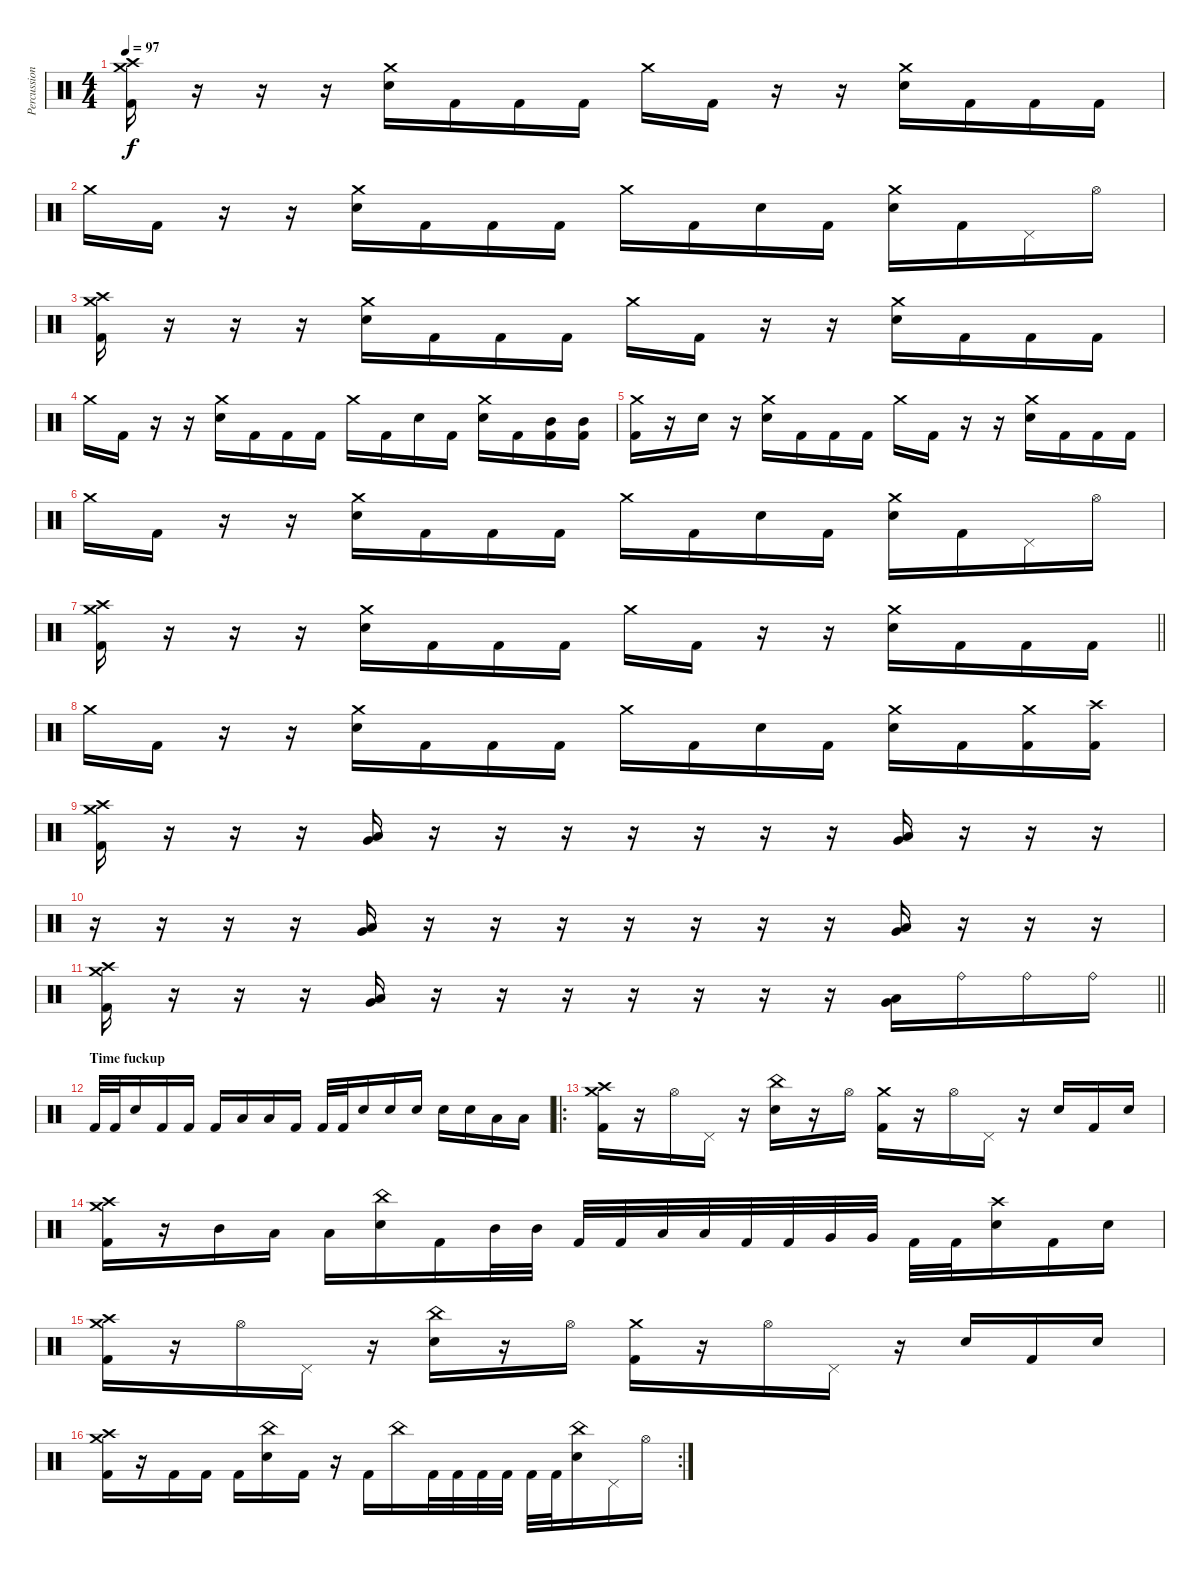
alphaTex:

\track ("Percussion" "Percussion") {instrument percussion}
\staff {score}
\articulation defaults
\ts (4 4)
\tempo 97
\clef neutral
\ks c
("Crash medium (hit)" "Crash high (hit)" "Kick (hit) 2").16{dy f} r.16 r.16 r.16 ("Crash medium (hit)" "Snare (hit) 2").16 "Kick (hit) 2".16 "Kick (hit) 2".16 "Kick (hit) 2".16 "Crash medium (hit)".16 "Kick (hit) 2".16 r.16 r.16 ("Crash medium (hit)" "Snare (hit) 2").16 "Kick (hit) 2".16 "Kick (hit) 2".16 "Kick (hit) 2".16 |
"Crash medium (hit)".16 "Kick (hit) 2".16 r.16 r.16 ("Crash medium (hit)" "Snare (hit) 2").16 "Kick (hit) 2".16 "Kick (hit) 2".16 "Kick (hit) 2".16 "Crash medium (hit)".16 "Kick (hit) 2".16 "Snare (hit) 2".16 "Kick (hit) 2".16 ("Crash medium (hit)" "Snare (hit) 2").16 "Kick (hit) 2".16 "Pedal Hi-Hat (hit)".16 "Hi-Hat (open)".16 |
("Crash medium (hit)" "Crash high (hit)" "Kick (hit) 2").16 r.16 r.16 r.16 ("Crash medium (hit)" "Snare (hit) 2").16 "Kick (hit) 2".16 "Kick (hit) 2".16 "Kick (hit) 2".16 "Crash medium (hit)".16 "Kick (hit) 2".16 r.16 r.16 ("Crash medium (hit)" "Snare (hit) 2").16 "Kick (hit) 2".16 "Kick (hit) 2".16 "Kick (hit) 2".16 |
"Crash medium (hit)".16 "Kick (hit) 2".16 r.16 r.16 ("Crash medium (hit)" "Snare (hit) 2").16 "Kick (hit) 2".16 "Kick (hit) 2".16 "Kick (hit) 2".16 "Crash medium (hit)".16 "Kick (hit) 2".16 "Snare (hit) 2".16 "Kick (hit) 2".16 ("Crash medium (hit)" "Snare (hit) 2").16 "Kick (hit) 2".16 ("Mid Tom (hit)" "Kick (hit) 2").16 ("Mid Tom (hit)" "Kick (hit) 2").16 |
("Crash medium (hit)" "Kick (hit) 2").16 r.16 "Snare (hit) 2".16 r.16 ("Crash medium (hit)" "Snare (hit) 2").16 "Kick (hit) 2".16 "Kick (hit) 2".16 "Kick (hit) 2".16 "Crash medium (hit)".16 "Kick (hit) 2".16 r.16 r.16 ("Crash medium (hit)" "Snare (hit) 2").16 "Kick (hit) 2".16 "Kick (hit) 2".16 "Kick (hit) 2".16 |
"Crash medium (hit)".16 "Kick (hit) 2".16 r.16 r.16 ("Crash medium (hit)" "Snare (hit) 2").16 "Kick (hit) 2".16 "Kick (hit) 2".16 "Kick (hit) 2".16 "Crash medium (hit)".16 "Kick (hit) 2".16 "Snare (hit) 2".16 "Kick (hit) 2".16 ("Crash medium (hit)" "Snare (hit) 2").16 "Kick (hit) 2".16 "Pedal Hi-Hat (hit)".16 "Hi-Hat (open)".16 |
\barLineRight lightlight
("Crash medium (hit)" "Crash high (hit)" "Kick (hit) 2").16 r.16 r.16 r.16 ("Crash medium (hit)" "Snare (hit) 2").16 "Kick (hit) 2".16 "Kick (hit) 2".16 "Kick (hit) 2".16 "Crash medium (hit)".16 "Kick (hit) 2".16 r.16 r.16 ("Crash medium (hit)" "Snare (hit) 2").16 "Kick (hit) 2".16 "Kick (hit) 2".16 "Kick (hit) 2".16 |
"Crash medium (hit)".16 "Kick (hit) 2".16 r.16 r.16 ("Crash medium (hit)" "Snare (hit) 2").16 "Kick (hit) 2".16 "Kick (hit) 2".16 "Kick (hit) 2".16 "Crash medium (hit)".16 "Kick (hit) 2".16 "Snare (hit) 2".16 "Kick (hit) 2".16 ("Crash medium (hit)" "Snare (hit) 2").16 "Kick (hit) 2".16 ("Crash medium (hit)" "Kick (hit) 2").16 ("Crash high (hit)" "Kick (hit) 2").16 |
("Crash high (hit)" "Crash medium (hit)" "Kick (hit) 2").16 r.16 r.16 r.16 ("Low Tom (hit)" "Very Low Tom (hit)").16 r.16 r.16 r.16 r.16 r.16 r.16 r.16 ("Low Tom (hit)" "Very Low Tom (hit)").16 r.16 r.16 r.16 |
r.16 r.16 r.16 r.16 ("Low Tom (hit)" "Very Low Tom (hit)").16 r.16 r.16 r.16 r.16 r.16 r.16 r.16 ("Low Tom (hit)" "Very Low Tom (hit)").16 r.16 r.16 r.16 |
\barLineRight lightlight
("Crash high (hit)" "Crash medium (hit)" "Kick (hit) 2").16 r.16 r.16 r.16 ("Low Tom (hit)" "Very Low Tom (hit)").16 r.16 r.16 r.16 r.16 r.16 r.16 r.16 ("Low Tom (hit)" "Very Low Tom (hit)").16 "Ride (bell)".16 "Ride (bell)".16 "Ride (bell)".16 |
\section ("" "Time fuckup")
"Kick (hit) 2".32 "Kick (hit) 2".32 "Snare (hit) 2".16 "Kick (hit) 2".16 "Kick (hit) 2".16 "Kick (hit) 2".16 "Low Tom (hit)".16 "Low Tom (hit)".16 "Kick (hit) 2".16 "Kick (hit) 2".32 "Kick (hit) 2".32 "Snare (hit) 2".16 "Snare (hit) 2".16 "Snare (hit) 2".16 "Snare (hit) 2".16 "Snare (hit) 2".16 "Low Tom (hit)".16 "Low Floor Tom (hit)".16 |
\ro
("Crash medium (hit)" "Crash high (hit)" "Kick (hit) 2").16 r.16 "Hi-Hat (open)".16 "Pedal Hi-Hat (hit)".16 r.16 ("China (hit)" "Snare (hit) 2").16 r.16 "Hi-Hat (open)".16 ("Crash medium (hit)" "Kick (hit) 2").16 r.16 "Hi-Hat (open)".16 "Pedal Hi-Hat (hit)".16 r.16 "Snare (hit) 2".16 "Kick (hit) 2".16 "Snare (hit) 2".16 |
("Crash medium (hit)" "Crash high (hit)" "Kick (hit) 2").16 r.16 "Mid Tom (hit)".16 "Low Tom (hit)".16 "Low Tom (hit)".16 ("China (hit)" "Snare (hit) 2").16 "Kick (hit) 2".16 "Mid Tom (hit)".32 "Mid Tom (hit)".32 "Kick (hit) 2".32 "Kick (hit) 2".32 "Low Tom (hit)".32 "Low Tom (hit)".32 "Kick (hit) 2".32 "Kick (hit) 2".32 "Very Low Tom (hit)".32 "Very Low Tom (hit)".32 "Kick (hit) 2".32 "Kick (hit) 2".32 ("Crash high (hit)" "Snare (hit) 2").16 "Kick (hit) 2".16 "Snare (hit) 2".16 |
("Crash medium (hit)" "Crash high (hit)" "Kick (hit) 2").16 r.16 "Hi-Hat (open)".16 "Pedal Hi-Hat (hit)".16 r.16 ("China (hit)" "Snare (hit) 2").16 r.16 "Hi-Hat (open)".16 ("Crash medium (hit)" "Kick (hit) 2").16 r.16 "Hi-Hat (open)".16 "Pedal Hi-Hat (hit)".16 r.16 "Snare (hit) 2".16 "Kick (hit) 2".16 "Snare (hit) 2".16 |
\rc 2
("Crash medium (hit)" "Crash high (hit)" "Kick (hit) 2").16 r.16 "Kick (hit) 2".16 "Kick (hit) 2".16 "Kick (hit) 2".16 ("China (hit)" "Snare (hit) 2").16 "Kick (hit) 2".16 r.16 "Kick (hit) 2".16 "China (hit)".16 "Kick (hit) 2".32 "Kick (hit) 2".32 "Kick (hit) 2".32 "Kick (hit) 2".32 "Kick (hit) 2".32 "Kick (hit) 2".32 ("China (hit)" "Snare (hit) 2").16 "Pedal Hi-Hat (hit)".16 "Hi-Hat (open)".16
